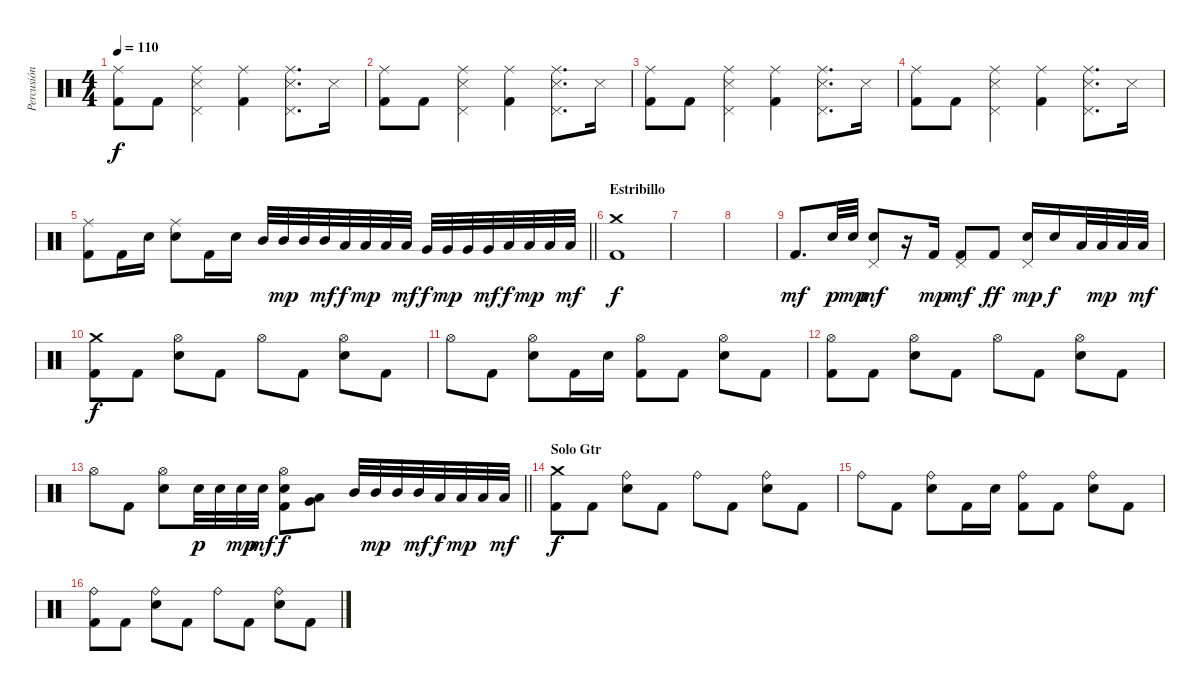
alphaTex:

\track ("Percusión" "Percusión") {instrument percussion}
\staff {score}
\articulation defaults
\ts (4 4)
\tempo 110
\clef neutral
\ks c
("Ride (middle)" "Kick (hit) 2").8{dy f} "Kick (hit) 2".8 ("Ride (middle)" "Pedal Hi-Hat (hit)" "Snare (side stick) 3").4 ("Ride (middle)" "Kick (hit) 2").4 ("Ride (middle)" "Pedal Hi-Hat (hit)" "Snare (side stick) 3").8{d} "Snare (side stick) 3".16 |
("Ride (middle)" "Kick (hit) 2").8 "Kick (hit) 2".8 ("Ride (middle)" "Pedal Hi-Hat (hit)" "Snare (side stick) 3").4 ("Ride (middle)" "Kick (hit) 2").4 ("Ride (middle)" "Pedal Hi-Hat (hit)" "Snare (side stick) 3").8{d} "Snare (side stick) 3".16 |
("Ride (middle)" "Kick (hit) 2").8 "Kick (hit) 2".8 ("Ride (middle)" "Pedal Hi-Hat (hit)" "Snare (side stick) 3").4 ("Ride (middle)" "Kick (hit) 2").4 ("Ride (middle)" "Pedal Hi-Hat (hit)" "Snare (side stick) 3").8{d} "Snare (side stick) 3".16 |
("Ride (middle)" "Kick (hit) 2").8 "Kick (hit) 2".8 ("Ride (middle)" "Pedal Hi-Hat (hit)" "Snare (side stick) 3").4 ("Ride (middle)" "Kick (hit) 2").4 ("Ride (middle)" "Pedal Hi-Hat (hit)" "Snare (side stick) 3").8{d} "Snare (side stick) 3".16 |
\barLineRight lightlight
("Ride (middle)" "Kick (hit) 2").8 "Kick (hit) 2".16 "Electric Snare (hit)".16 ("Ride (middle)" "Electric Snare (hit)").8 "Kick (hit) 2".16 "Electric Snare (hit)".16 "Mid Tom (hit)".32 "Mid Tom (hit)".32{dy mp} "Mid Tom (hit)".32 "Mid Tom (hit)".32{dy mf} "Low Tom (hit)".32{dy f} "Low Tom (hit)".32{dy mp} "Low Tom (hit)".32 "Low Tom (hit)".32{dy mf} "Very Low Tom (hit)".32{dy f} "Very Low Tom (hit)".32{dy mp} "Very Low Tom (hit)".32 "Very Low Tom (hit)".32{dy mf} "Low Floor Tom (hit)".32{dy f} "Low Floor Tom (hit)".32{dy mp} "Low Floor Tom (hit)".32 "Low Floor Tom (hit)".32{dy mf} |
\section ("" "Estribillo")
("Crash medium (hit)" "Kick (hit) 2").1{dy f} |
|
|
"Kick (hit) 2".8{d dy mf} "Electric Snare (hit)".32{dy p} "Electric Snare (hit)".32{dy mp} ("Pedal Hi-Hat (hit)" "Electric Snare (hit)").8{dy mf} r.16 "Kick (hit) 2".16{dy mp} ("Pedal Hi-Hat (hit)" "Kick (hit) 2").8{dy mf} "Kick (hit) 2".8{dy ff} ("Pedal Hi-Hat (hit)" "Electric Snare (hit)").16{dy mp} "Electric Snare (hit)".16{dy f} "Low Tom (hit)".32 "Low Tom (hit)".32{dy mp} "Low Tom (hit)".32 "Low Tom (hit)".32{dy mf} |
("Crash medium (hit)" "Kick (hit) 2").8{dy f} "Kick (hit) 2".8 ("Hi-Hat (open)" "Electric Snare (hit)").8 "Kick (hit) 2".8 "Hi-Hat (open)".8 "Kick (hit) 2".8 ("Hi-Hat (open)" "Electric Snare (hit)").8 "Kick (hit) 2".8 |
"Hi-Hat (open)".8 "Kick (hit) 2".8 ("Hi-Hat (open)" "Electric Snare (hit)").8 "Kick (hit) 2".16 "Electric Snare (hit)".16 ("Hi-Hat (open)" "Kick (hit) 2").8 "Kick (hit) 2".8 ("Hi-Hat (open)" "Electric Snare (hit)").8 "Kick (hit) 2".8 |
("Hi-Hat (open)" "Kick (hit) 2").8 "Kick (hit) 2".8 ("Hi-Hat (open)" "Electric Snare (hit)").8 "Kick (hit) 2".8 "Hi-Hat (open)".8 "Kick (hit) 2".8 ("Hi-Hat (open)" "Electric Snare (hit)").8 "Kick (hit) 2".8 |
\barLineRight lightlight "Hi-Hat (open)".8 "Kick (hit) 2".8
("Hi-Hat (open)" "Electric Snare (hit)").8 "Electric Snare (hit)".32{dy p} "Electric Snare (hit)".32 "Electric Snare (hit)".32{dy mp} "Electric Snare (hit)".32{dy mf} ("Hi-Hat (open)" "Electric Snare (hit)" "Kick (hit) 2").8{dy f} ("Very Low Tom (hit)" "Low Floor Tom (hit)").8{bd 60} "Mid Tom (hit)".32 "Mid Tom (hit)".32{dy mp} "Mid Tom (hit)".32 "Mid Tom (hit)".32{dy mf} "Low Tom (hit)".32{dy f} "Low Tom (hit)".32{dy mp} "Low Tom (hit)".32 "Low Tom (hit)".32{dy mf} |
\section ("" "Solo Gtr")
("Crash medium (hit)" "Kick (hit) 2").8{dy f} "Kick (hit) 2".8 ("Ride (bell)" "Electric Snare (hit)").8 "Kick (hit) 2".8 "Ride (bell)".8 "Kick (hit) 2".8 ("Ride (bell)" "Electric Snare (hit)").8 "Kick (hit) 2".8 |
"Ride (bell)".8 "Kick (hit) 2".8 ("Ride (bell)" "Electric Snare (hit)").8 "Kick (hit) 2".16 "Electric Snare (hit)".16 ("Ride (bell)" "Kick (hit) 2").8 "Kick (hit) 2".8 ("Ride (bell)" "Electric Snare (hit)").8 "Kick (hit) 2".8 |
("Ride (bell)" "Kick (hit) 2").8 "Kick (hit) 2".8 ("Ride (bell)" "Electric Snare (hit)").8 "Kick (hit) 2".8 "Ride (bell)".8 "Kick (hit) 2".8 ("Ride (bell)" "Electric Snare (hit)").8 "Kick (hit) 2".8
